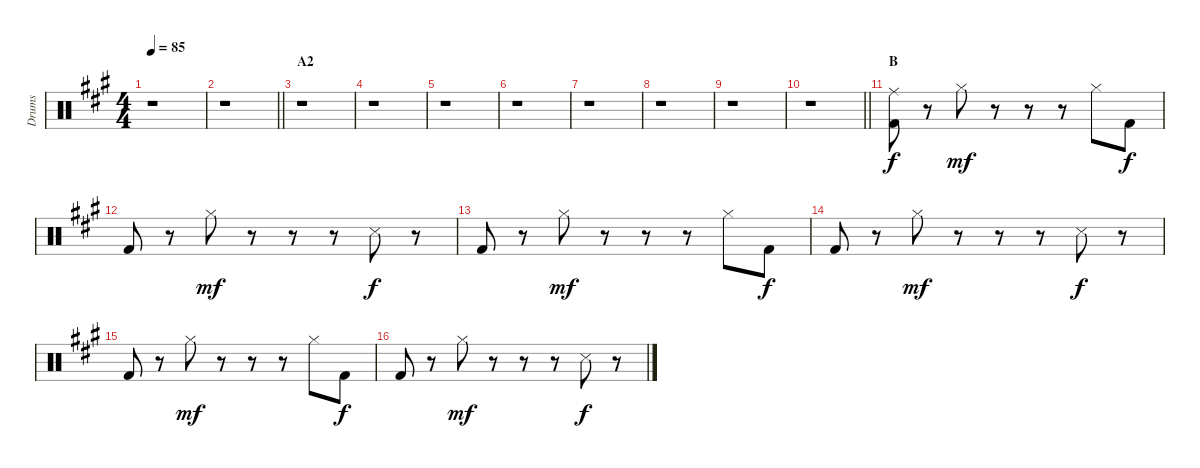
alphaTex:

\track ("Drums" "Drums") {instrument percussion}
\staff {score}
\articulation defaults
\ts (4 4)
\tempo 85
\clef neutral
\ks a
r.1{dy f} |
\barLineRight lightlight
r.1 |
\section ("" "A2")
r.1 |
r.1 |
r.1 |
r.1 |
r.1 |
r.1 |
r.1 |
\barLineRight lightlight
r.1 |
\section ("" "B")
("Ride (middle)" "Kick (hit) 2").8 r.8 "Hi-Hat (closed)".8{dy mf} r.8 r.8 r.8 "Hi-Hat (closed)".8 "Kick (hit) 2".8{dy f} |
"Kick (hit) 2".8 r.8 "Hi-Hat (closed)".8{dy mf} r.8 r.8 r.8 "Snare (side stick) 3".8{dy f} r.8 |
"Kick (hit) 2".8 r.8 "Hi-Hat (closed)".8{dy mf} r.8 r.8 r.8 "Hi-Hat (closed)".8 "Kick (hit) 2".8{dy f} |
"Kick (hit) 2".8 r.8 "Hi-Hat (closed)".8{dy mf} r.8 r.8 r.8 "Snare (side stick) 3".8{dy f} r.8 |
"Kick (hit) 2".8 r.8 "Hi-Hat (closed)".8{dy mf} r.8 r.8 r.8 "Hi-Hat (closed)".8 "Kick (hit) 2".8{dy f} |
"Kick (hit) 2".8 r.8 "Hi-Hat (closed)".8{dy mf} r.8 r.8 r.8 "Snare (side stick) 3".8{dy f} r.8
